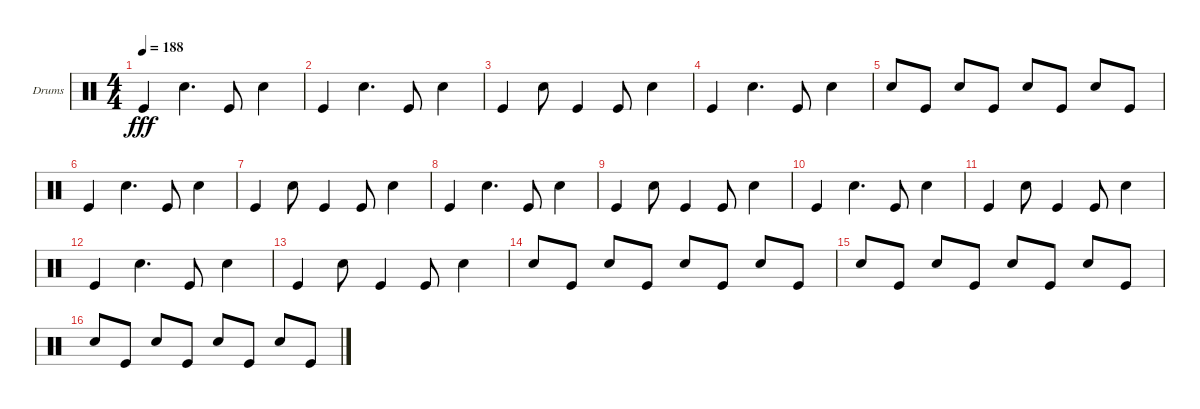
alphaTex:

\defaultSystemsLayout 4
\bracketExtendMode groupsimilarinstruments
\firstSystemTrackNameOrientation horizontal
\otherSystemsTrackNameOrientation horizontal
\track ("Пашок" "Drums") {instrument percussion}
\staff {score}
\articulation defaults
\ts (4 4)
\tempo 188
\clef neutral
\ks c "Kick (hit)".4{dy fff} "Snare (hit) 2".4{d} "Kick (hit)".8 "Snare (hit) 2".4
|
"Kick (hit)".4 "Snare (hit) 2".4{d} "Kick (hit)".8 "Snare (hit) 2".4 |
"Kick (hit)".4 "Snare (hit) 2".8 "Kick (hit)".4 "Kick (hit)".8 "Snare (hit) 2".4 |
"Kick (hit)".4 "Snare (hit) 2".4{d} "Kick (hit)".8 "Snare (hit) 2".4 |
"Snare (hit) 2".8 "Kick (hit)".8 "Snare (hit) 2".8 "Kick (hit)".8 "Snare (hit) 2".8 "Kick (hit)".8 "Snare (hit) 2".8 "Kick (hit)".8 |
"Kick (hit)".4 "Snare (hit) 2".4{d} "Kick (hit)".8 "Snare (hit) 2".4 |
"Kick (hit)".4 "Snare (hit) 2".8 "Kick (hit)".4 "Kick (hit)".8 "Snare (hit) 2".4 |
"Kick (hit)".4 "Snare (hit) 2".4{d} "Kick (hit)".8 "Snare (hit) 2".4 |
"Kick (hit)".4 "Snare (hit) 2".8 "Kick (hit)".4 "Kick (hit)".8 "Snare (hit) 2".4 |
"Kick (hit)".4 "Snare (hit) 2".4{d} "Kick (hit)".8 "Snare (hit) 2".4 |
"Kick (hit)".4 "Snare (hit) 2".8 "Kick (hit)".4 "Kick (hit)".8 "Snare (hit) 2".4 |
"Kick (hit)".4 "Snare (hit) 2".4{d} "Kick (hit)".8 "Snare (hit) 2".4 |
"Kick (hit)".4 "Snare (hit) 2".8 "Kick (hit)".4 "Kick (hit)".8 "Snare (hit) 2".4 |
"Snare (hit) 2".8 "Kick (hit)".8 "Snare (hit) 2".8 "Kick (hit)".8 "Snare (hit) 2".8 "Kick (hit)".8 "Snare (hit) 2".8 "Kick (hit)".8 |
"Snare (hit) 2".8 "Kick (hit)".8 "Snare (hit) 2".8 "Kick (hit)".8 "Snare (hit) 2".8 "Kick (hit)".8 "Snare (hit) 2".8 "Kick (hit)".8 |
"Snare (hit) 2".8 "Kick (hit)".8 "Snare (hit) 2".8 "Kick (hit)".8 "Snare (hit) 2".8 "Kick (hit)".8 "Snare (hit) 2".8 "Kick (hit)".8
